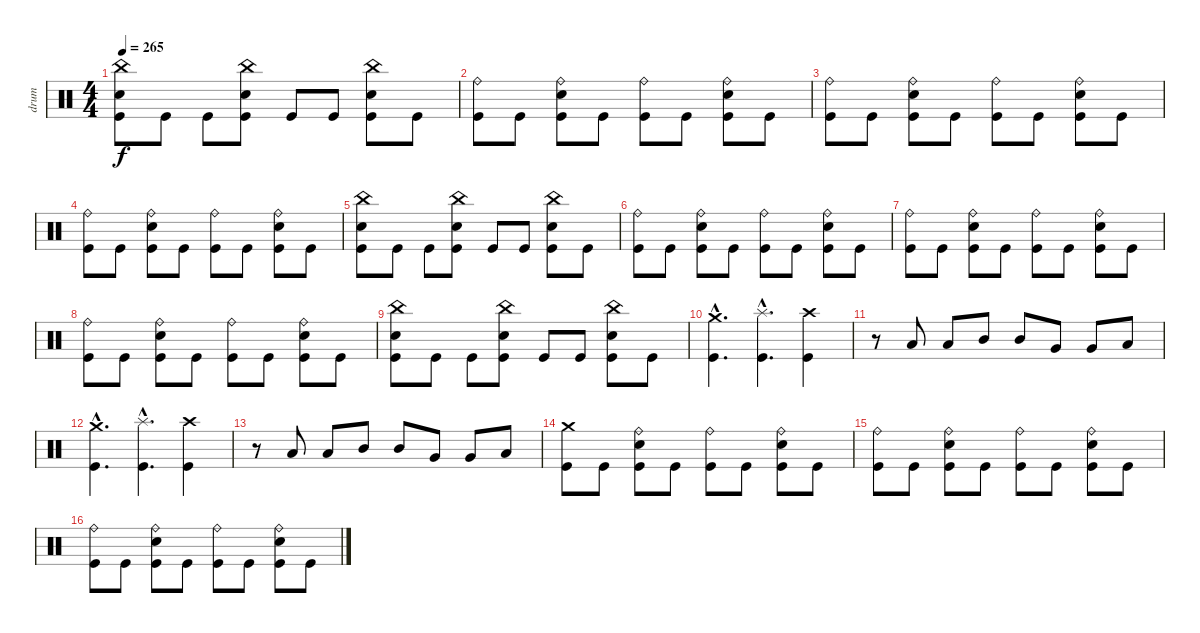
\track ("drum" "drum") {instrument percussion}
\staff {score}
\articulation defaults
\ts (4 4)
\tempo 265
\clef neutral
\ks c
("Kick (hit)" "Electric Snare (hit)" "China (hit)").8{dy f} "Kick (hit)".8 "Kick (hit)".8 ("Kick (hit)" "Electric Snare (hit)" "China (hit)").8 "Kick (hit)".8 "Kick (hit)".8 ("Kick (hit)" "Electric Snare (hit)" "China (hit)").8 "Kick (hit)".8 |
("Kick (hit)" "Ride (bell)").8 "Kick (hit)".8 ("Kick (hit)" "Electric Snare (hit)" "Ride (bell)").8 "Kick (hit)".8 ("Kick (hit)" "Ride (bell)").8 "Kick (hit)".8 ("Kick (hit)" "Electric Snare (hit)" "Ride (bell)").8 "Kick (hit)".8 |
("Kick (hit)" "Ride (bell)").8 "Kick (hit)".8 ("Kick (hit)" "Electric Snare (hit)" "Ride (bell)").8 "Kick (hit)".8 ("Kick (hit)" "Ride (bell)").8 "Kick (hit)".8 ("Kick (hit)" "Electric Snare (hit)" "Ride (bell)").8 "Kick (hit)".8 |
("Kick (hit)" "Ride (bell)").8 "Kick (hit)".8 ("Kick (hit)" "Electric Snare (hit)" "Ride (bell)").8 "Kick (hit)".8 ("Kick (hit)" "Ride (bell)").8 "Kick (hit)".8 ("Kick (hit)" "Electric Snare (hit)" "Ride (bell)").8 "Kick (hit)".8 |
("Kick (hit)" "Electric Snare (hit)" "China (hit)").8 "Kick (hit)".8 "Kick (hit)".8 ("Kick (hit)" "Electric Snare (hit)" "China (hit)").8 "Kick (hit)".8 "Kick (hit)".8 ("Kick (hit)" "Electric Snare (hit)" "China (hit)").8 "Kick (hit)".8 |
("Kick (hit)" "Ride (bell)").8 "Kick (hit)".8 ("Kick (hit)" "Electric Snare (hit)" "Ride (bell)").8 "Kick (hit)".8 ("Kick (hit)" "Ride (bell)").8 "Kick (hit)".8 ("Kick (hit)" "Electric Snare (hit)" "Ride (bell)").8 "Kick (hit)".8 |
("Kick (hit)" "Ride (bell)").8 "Kick (hit)".8 ("Kick (hit)" "Electric Snare (hit)" "Ride (bell)").8 "Kick (hit)".8 ("Kick (hit)" "Ride (bell)").8 "Kick (hit)".8 ("Kick (hit)" "Electric Snare (hit)" "Ride (bell)").8 "Kick (hit)".8 |
("Kick (hit)" "Ride (bell)").8 "Kick (hit)".8 ("Kick (hit)" "Electric Snare (hit)" "Ride (bell)").8 "Kick (hit)".8 ("Kick (hit)" "Ride (bell)").8 "Kick (hit)".8 ("Kick (hit)" "Electric Snare (hit)" "Ride (bell)").8 "Kick (hit)".8 |
("Kick (hit)" "Electric Snare (hit)" "China (hit)").8 "Kick (hit)".8 "Kick (hit)".8 ("Kick (hit)" "Electric Snare (hit)" "China (hit)").8 "Kick (hit)".8 "Kick (hit)".8 ("Kick (hit)" "Electric Snare (hit)" "China (hit)").8 "Kick (hit)".8 |
("Kick (hit)"{hac} "Crash medium (hit)"{hac}).4{d} ("Kick (hit)"{hac} "Splash (hit)"{hac}).4{d} ("Kick (hit)" "Crash high (hit)").4 |
r.8 "Low Tom (hit)".8 "Low Tom (hit)".8 "Mid Tom (hit)".8 "Mid Tom (hit)".8 "Very Low Tom (hit)".8 "Very Low Tom (hit)".8 "Low Floor Tom (hit)".8 |
("Kick (hit)"{hac} "Crash medium (hit)"{hac}).4{d} ("Kick (hit)"{hac} "Splash (hit)"{hac}).4{d} ("Kick (hit)" "Crash high (hit)").4 |
r.8 "Low Tom (hit)".8 "Low Tom (hit)".8 "Mid Tom (hit)".8 "Mid Tom (hit)".8 "Very Low Tom (hit)".8 "Very Low Tom (hit)".8 "Low Floor Tom (hit)".8 |
("Kick (hit)" "Crash medium (hit)").8 "Kick (hit)".8 ("Kick (hit)" "Electric Snare (hit)" "Ride (bell)").8 "Kick (hit)".8 ("Kick (hit)" "Ride (bell)").8 "Kick (hit)".8 ("Kick (hit)" "Electric Snare (hit)" "Ride (bell)").8 "Kick (hit)".8 |
("Kick (hit)" "Ride (bell)").8 "Kick (hit)".8 ("Kick (hit)" "Electric Snare (hit)" "Ride (bell)").8 "Kick (hit)".8 ("Kick (hit)" "Ride (bell)").8 "Kick (hit)".8 ("Kick (hit)" "Electric Snare (hit)" "Ride (bell)").8 "Kick (hit)".8 |
("Kick (hit)" "Ride (bell)").8 "Kick (hit)".8 ("Kick (hit)" "Electric Snare (hit)" "Ride (bell)").8 "Kick (hit)".8 ("Kick (hit)" "Ride (bell)").8 "Kick (hit)".8 ("Kick (hit)" "Electric Snare (hit)" "Ride (bell)").8 "Kick (hit)".8
